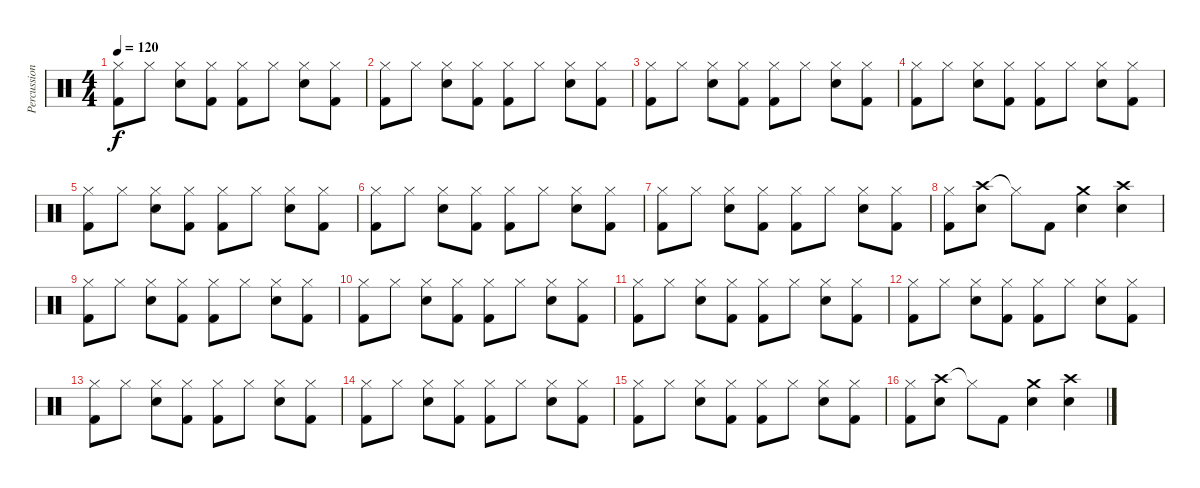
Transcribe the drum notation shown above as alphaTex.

\track ("Percussion" "Percussion") {instrument percussion}
\staff {score}
\articulation defaults
\ts (4 4)
\tempo 120
\clef neutral
\ks c
("Hi-Hat (closed)" "Kick (hit) 2").8{dy f} "Hi-Hat (closed)".8 ("Hi-Hat (closed)" "Electric Snare (hit)").8 ("Hi-Hat (closed)" "Kick (hit) 2").8 ("Hi-Hat (closed)" "Kick (hit) 2").8 "Hi-Hat (closed)".8 ("Hi-Hat (closed)" "Electric Snare (hit)").8 ("Hi-Hat (closed)" "Kick (hit) 2").8 |
("Hi-Hat (closed)" "Kick (hit) 2").8 "Hi-Hat (closed)".8 ("Hi-Hat (closed)" "Electric Snare (hit)").8 ("Hi-Hat (closed)" "Kick (hit) 2").8 ("Hi-Hat (closed)" "Kick (hit) 2").8 "Hi-Hat (closed)".8 ("Hi-Hat (closed)" "Electric Snare (hit)").8 ("Hi-Hat (closed)" "Kick (hit) 2").8 |
("Hi-Hat (closed)" "Kick (hit) 2").8 "Hi-Hat (closed)".8 ("Hi-Hat (closed)" "Electric Snare (hit)").8 ("Hi-Hat (closed)" "Kick (hit) 2").8 ("Hi-Hat (closed)" "Kick (hit) 2").8 "Hi-Hat (closed)".8 ("Hi-Hat (closed)" "Electric Snare (hit)").8 ("Hi-Hat (closed)" "Kick (hit) 2").8 |
("Hi-Hat (closed)" "Kick (hit) 2").8 "Hi-Hat (closed)".8 ("Hi-Hat (closed)" "Electric Snare (hit)").8 ("Hi-Hat (closed)" "Kick (hit) 2").8 ("Hi-Hat (closed)" "Kick (hit) 2").8 "Hi-Hat (closed)".8 ("Hi-Hat (closed)" "Electric Snare (hit)").8 ("Hi-Hat (closed)" "Kick (hit) 2").8 |
("Hi-Hat (closed)" "Kick (hit) 2").8 "Hi-Hat (closed)".8 ("Hi-Hat (closed)" "Electric Snare (hit)").8 ("Hi-Hat (closed)" "Kick (hit) 2").8 ("Hi-Hat (closed)" "Kick (hit) 2").8 "Hi-Hat (closed)".8 ("Hi-Hat (closed)" "Electric Snare (hit)").8 ("Hi-Hat (closed)" "Kick (hit) 2").8 |
("Hi-Hat (closed)" "Kick (hit) 2").8 "Hi-Hat (closed)".8 ("Hi-Hat (closed)" "Electric Snare (hit)").8 ("Hi-Hat (closed)" "Kick (hit) 2").8 ("Hi-Hat (closed)" "Kick (hit) 2").8 "Hi-Hat (closed)".8 ("Hi-Hat (closed)" "Electric Snare (hit)").8 ("Hi-Hat (closed)" "Kick (hit) 2").8 |
("Hi-Hat (closed)" "Kick (hit) 2").8 "Hi-Hat (closed)".8 ("Hi-Hat (closed)" "Electric Snare (hit)").8 ("Hi-Hat (closed)" "Kick (hit) 2").8 ("Hi-Hat (closed)" "Kick (hit) 2").8 "Hi-Hat (closed)".8 ("Hi-Hat (closed)" "Electric Snare (hit)").8 ("Hi-Hat (closed)" "Kick (hit) 2").8 |
("Hi-Hat (closed)" "Kick (hit) 2").8 ("Crash high (hit)" "Electric Snare (hit)").8 "Hi-Hat (closed)"{t}.8 "Kick (hit) 2".8 ("Crash medium (hit)" "Electric Snare (hit)").4 ("Crash high (hit)" "Electric Snare (hit)").4 |
("Hi-Hat (closed)" "Kick (hit) 2").8 "Hi-Hat (closed)".8 ("Hi-Hat (closed)" "Electric Snare (hit)").8 ("Hi-Hat (closed)" "Kick (hit) 2").8 ("Hi-Hat (closed)" "Kick (hit) 2").8 "Hi-Hat (closed)".8 ("Hi-Hat (closed)" "Electric Snare (hit)").8 ("Hi-Hat (closed)" "Kick (hit) 2").8 |
("Hi-Hat (closed)" "Kick (hit) 2").8 "Hi-Hat (closed)".8 ("Hi-Hat (closed)" "Electric Snare (hit)").8 ("Hi-Hat (closed)" "Kick (hit) 2").8 ("Hi-Hat (closed)" "Kick (hit) 2").8 "Hi-Hat (closed)".8 ("Hi-Hat (closed)" "Electric Snare (hit)").8 ("Hi-Hat (closed)" "Kick (hit) 2").8 |
("Hi-Hat (closed)" "Kick (hit) 2").8 "Hi-Hat (closed)".8 ("Hi-Hat (closed)" "Electric Snare (hit)").8 ("Hi-Hat (closed)" "Kick (hit) 2").8 ("Hi-Hat (closed)" "Kick (hit) 2").8 "Hi-Hat (closed)".8 ("Hi-Hat (closed)" "Electric Snare (hit)").8 ("Hi-Hat (closed)" "Kick (hit) 2").8 |
("Hi-Hat (closed)" "Kick (hit) 2").8 "Hi-Hat (closed)".8 ("Hi-Hat (closed)" "Electric Snare (hit)").8 ("Hi-Hat (closed)" "Kick (hit) 2").8 ("Hi-Hat (closed)" "Kick (hit) 2").8 "Hi-Hat (closed)".8 ("Hi-Hat (closed)" "Electric Snare (hit)").8 ("Hi-Hat (closed)" "Kick (hit) 2").8 |
("Hi-Hat (closed)" "Kick (hit) 2").8 "Hi-Hat (closed)".8 ("Hi-Hat (closed)" "Electric Snare (hit)").8 ("Hi-Hat (closed)" "Kick (hit) 2").8 ("Hi-Hat (closed)" "Kick (hit) 2").8 "Hi-Hat (closed)".8 ("Hi-Hat (closed)" "Electric Snare (hit)").8 ("Hi-Hat (closed)" "Kick (hit) 2").8 |
("Hi-Hat (closed)" "Kick (hit) 2").8 "Hi-Hat (closed)".8 ("Hi-Hat (closed)" "Electric Snare (hit)").8 ("Hi-Hat (closed)" "Kick (hit) 2").8 ("Hi-Hat (closed)" "Kick (hit) 2").8 "Hi-Hat (closed)".8 ("Hi-Hat (closed)" "Electric Snare (hit)").8 ("Hi-Hat (closed)" "Kick (hit) 2").8 |
("Hi-Hat (closed)" "Kick (hit) 2").8 "Hi-Hat (closed)".8 ("Hi-Hat (closed)" "Electric Snare (hit)").8 ("Hi-Hat (closed)" "Kick (hit) 2").8 ("Hi-Hat (closed)" "Kick (hit) 2").8 "Hi-Hat (closed)".8 ("Hi-Hat (closed)" "Electric Snare (hit)").8 ("Hi-Hat (closed)" "Kick (hit) 2").8 |
("Hi-Hat (closed)" "Kick (hit) 2").8 ("Crash high (hit)" "Electric Snare (hit)").8 "Hi-Hat (closed)"{t}.8 "Kick (hit) 2".8 ("Crash medium (hit)" "Electric Snare (hit)").4 ("Crash high (hit)" "Electric Snare (hit)").4
